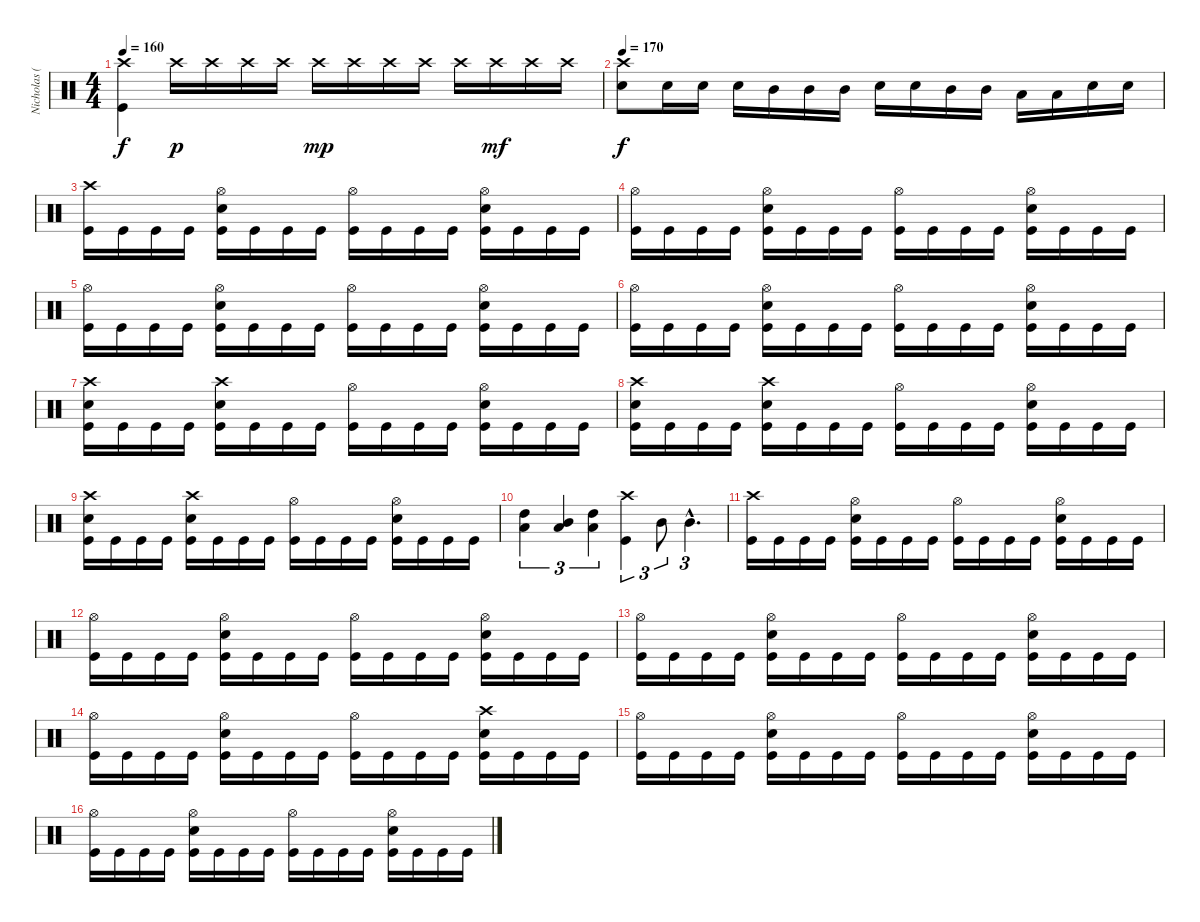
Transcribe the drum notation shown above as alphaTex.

\track ("Nicholas (Drums)" "Nicholas (") {instrument percussion}
\staff {score}
\articulation defaults
\ts (4 4)
\tempo 160
\clef neutral
\ks c
("Crash high (hit)" "Kick (hit)").4{dy f} "Crash high (hit)".16{dy p} "Crash high (hit)".16 "Crash high (hit)".16 "Crash high (hit)".16 "Crash high (hit)".16{dy mp} "Crash high (hit)".16 "Crash high (hit)".16 "Crash high (hit)".16 "Crash high (hit)".16 "Crash high (hit)".16{dy mf} "Crash high (hit)".16 "Crash high (hit)".16 |
\tempo 170
("Crash high (hit)" "Electric Snare (hit)").8{dy f} "Electric Snare (hit)".16 "Electric Snare (hit)".16 "Electric Snare (hit)".16 "Mid Tom (hit)".16 "Mid Tom (hit)".16 "Mid Tom (hit)".16 "Electric Snare (hit)".16 "Electric Snare (hit)".16 "Mid Tom (hit)".16 "Mid Tom (hit)".16 "Low Tom (hit)".16 "Low Tom (hit)".16 "Electric Snare (hit)".16 "Electric Snare (hit)".16 |
("Crash high (hit)" "Kick (hit)").16 "Kick (hit)".16 "Kick (hit)".16 "Kick (hit)".16 ("Hi-Hat (open)" "Electric Snare (hit)" "Kick (hit)").16 "Kick (hit)".16 "Kick (hit)".16 "Kick (hit)".16 ("Hi-Hat (open)" "Kick (hit)").16 "Kick (hit)".16 "Kick (hit)".16 "Kick (hit)".16 ("Hi-Hat (open)" "Electric Snare (hit)" "Kick (hit)").16 "Kick (hit)".16 "Kick (hit)".16 "Kick (hit)".16 |
("Hi-Hat (open)" "Kick (hit)").16 "Kick (hit)".16 "Kick (hit)".16 "Kick (hit)".16 ("Hi-Hat (open)" "Electric Snare (hit)" "Kick (hit)").16 "Kick (hit)".16 "Kick (hit)".16 "Kick (hit)".16 ("Hi-Hat (open)" "Kick (hit)").16 "Kick (hit)".16 "Kick (hit)".16 "Kick (hit)".16 ("Hi-Hat (open)" "Electric Snare (hit)" "Kick (hit)").16 "Kick (hit)".16 "Kick (hit)".16 "Kick (hit)".16 |
("Hi-Hat (open)" "Kick (hit)").16 "Kick (hit)".16 "Kick (hit)".16 "Kick (hit)".16 ("Hi-Hat (open)" "Electric Snare (hit)" "Kick (hit)").16 "Kick (hit)".16 "Kick (hit)".16 "Kick (hit)".16 ("Hi-Hat (open)" "Kick (hit)").16 "Kick (hit)".16 "Kick (hit)".16 "Kick (hit)".16 ("Hi-Hat (open)" "Electric Snare (hit)" "Kick (hit)").16 "Kick (hit)".16 "Kick (hit)".16 "Kick (hit)".16 |
("Hi-Hat (open)" "Kick (hit)").16 "Kick (hit)".16 "Kick (hit)".16 "Kick (hit)".16 ("Hi-Hat (open)" "Electric Snare (hit)" "Kick (hit)").16 "Kick (hit)".16 "Kick (hit)".16 "Kick (hit)".16 ("Hi-Hat (open)" "Kick (hit)").16 "Kick (hit)".16 "Kick (hit)".16 "Kick (hit)".16 ("Hi-Hat (open)" "Electric Snare (hit)" "Kick (hit)").16 "Kick (hit)".16 "Kick (hit)".16 "Kick (hit)".16 |
("Crash high (hit)" "Electric Snare (hit)" "Kick (hit)").16 "Kick (hit)".16 "Kick (hit)".16 "Kick (hit)".16 ("Crash high (hit)" "Electric Snare (hit)" "Kick (hit)").16 "Kick (hit)".16 "Kick (hit)".16 "Kick (hit)".16 ("Hi-Hat (open)" "Kick (hit)").16 "Kick (hit)".16 "Kick (hit)".16 "Kick (hit)".16 ("Hi-Hat (open)" "Electric Snare (hit)" "Kick (hit)").16 "Kick (hit)".16 "Kick (hit)".16 "Kick (hit)".16 |
("Crash high (hit)" "Electric Snare (hit)" "Kick (hit)").16 "Kick (hit)".16 "Kick (hit)".16 "Kick (hit)".16 ("Crash high (hit)" "Electric Snare (hit)" "Kick (hit)").16 "Kick (hit)".16 "Kick (hit)".16 "Kick (hit)".16 ("Hi-Hat (open)" "Kick (hit)").16 "Kick (hit)".16 "Kick (hit)".16 "Kick (hit)".16 ("Hi-Hat (open)" "Electric Snare (hit)" "Kick (hit)").16 "Kick (hit)".16 "Kick (hit)".16 "Kick (hit)".16 |
("Crash high (hit)" "Electric Snare (hit)" "Kick (hit)").16 "Kick (hit)".16 "Kick (hit)".16 "Kick (hit)".16 ("Crash high (hit)" "Electric Snare (hit)" "Kick (hit)").16 "Kick (hit)".16 "Kick (hit)".16 "Kick (hit)".16 ("Hi-Hat (open)" "Kick (hit)").16 "Kick (hit)".16 "Kick (hit)".16 "Kick (hit)".16 ("Hi-Hat (open)" "Electric Snare (hit)" "Kick (hit)").16 "Kick (hit)".16 "Kick (hit)".16 "Kick (hit)".16 |
("High Tom (hit)" "Low Floor Tom (hit)").4{tu (3 2)} ("Mid Tom (hit)" "Low Floor Tom (hit)").4{tu (3 2)} ("High Tom (hit)" "Low Floor Tom (hit)").4{tu (3 2)} ("Crash high (hit)" "Kick (hit)").4{tu (3 2)} "Mid Tom (hit)".8{tu (3 2)} "Mid Tom (hit)"{hac}.4{d tu (3 2)} |
("Crash high (hit)" "Kick (hit)").16 "Kick (hit)".16 "Kick (hit)".16 "Kick (hit)".16 ("Hi-Hat (open)" "Electric Snare (hit)" "Kick (hit)").16 "Kick (hit)".16 "Kick (hit)".16 "Kick (hit)".16 ("Hi-Hat (open)" "Kick (hit)").16 "Kick (hit)".16 "Kick (hit)".16 "Kick (hit)".16 ("Hi-Hat (open)" "Electric Snare (hit)" "Kick (hit)").16 "Kick (hit)".16 "Kick (hit)".16 "Kick (hit)".16 |
("Hi-Hat (open)" "Kick (hit)").16 "Kick (hit)".16 "Kick (hit)".16 "Kick (hit)".16 ("Hi-Hat (open)" "Electric Snare (hit)" "Kick (hit)").16 "Kick (hit)".16 "Kick (hit)".16 "Kick (hit)".16 ("Hi-Hat (open)" "Kick (hit)").16 "Kick (hit)".16 "Kick (hit)".16 "Kick (hit)".16 ("Hi-Hat (open)" "Electric Snare (hit)" "Kick (hit)").16 "Kick (hit)".16 "Kick (hit)".16 "Kick (hit)".16 |
("Hi-Hat (open)" "Kick (hit)").16 "Kick (hit)".16 "Kick (hit)".16 "Kick (hit)".16 ("Hi-Hat (open)" "Electric Snare (hit)" "Kick (hit)").16 "Kick (hit)".16 "Kick (hit)".16 "Kick (hit)".16 ("Hi-Hat (open)" "Kick (hit)").16 "Kick (hit)".16 "Kick (hit)".16 "Kick (hit)".16 ("Hi-Hat (open)" "Electric Snare (hit)" "Kick (hit)").16 "Kick (hit)".16 "Kick (hit)".16 "Kick (hit)".16 |
("Hi-Hat (open)" "Kick (hit)").16 "Kick (hit)".16 "Kick (hit)".16 "Kick (hit)".16 ("Hi-Hat (open)" "Electric Snare (hit)" "Kick (hit)").16 "Kick (hit)".16 "Kick (hit)".16 "Kick (hit)".16 ("Hi-Hat (open)" "Kick (hit)").16 "Kick (hit)".16 "Kick (hit)".16 "Kick (hit)".16 ("Crash high (hit)" "Electric Snare (hit)" "Kick (hit)").16 "Kick (hit)".16 "Kick (hit)".16 "Kick (hit)".16 |
("Hi-Hat (open)" "Kick (hit)").16 "Kick (hit)".16 "Kick (hit)".16 "Kick (hit)".16 ("Hi-Hat (open)" "Electric Snare (hit)" "Kick (hit)").16 "Kick (hit)".16 "Kick (hit)".16 "Kick (hit)".16 ("Hi-Hat (open)" "Kick (hit)").16 "Kick (hit)".16 "Kick (hit)".16 "Kick (hit)".16 ("Hi-Hat (open)" "Electric Snare (hit)" "Kick (hit)").16 "Kick (hit)".16 "Kick (hit)".16 "Kick (hit)".16 |
("Hi-Hat (open)" "Kick (hit)").16 "Kick (hit)".16 "Kick (hit)".16 "Kick (hit)".16 ("Hi-Hat (open)" "Electric Snare (hit)" "Kick (hit)").16 "Kick (hit)".16 "Kick (hit)".16 "Kick (hit)".16 ("Hi-Hat (open)" "Kick (hit)").16 "Kick (hit)".16 "Kick (hit)".16 "Kick (hit)".16 ("Hi-Hat (open)" "Electric Snare (hit)" "Kick (hit)").16 "Kick (hit)".16 "Kick (hit)".16 "Kick (hit)".16
